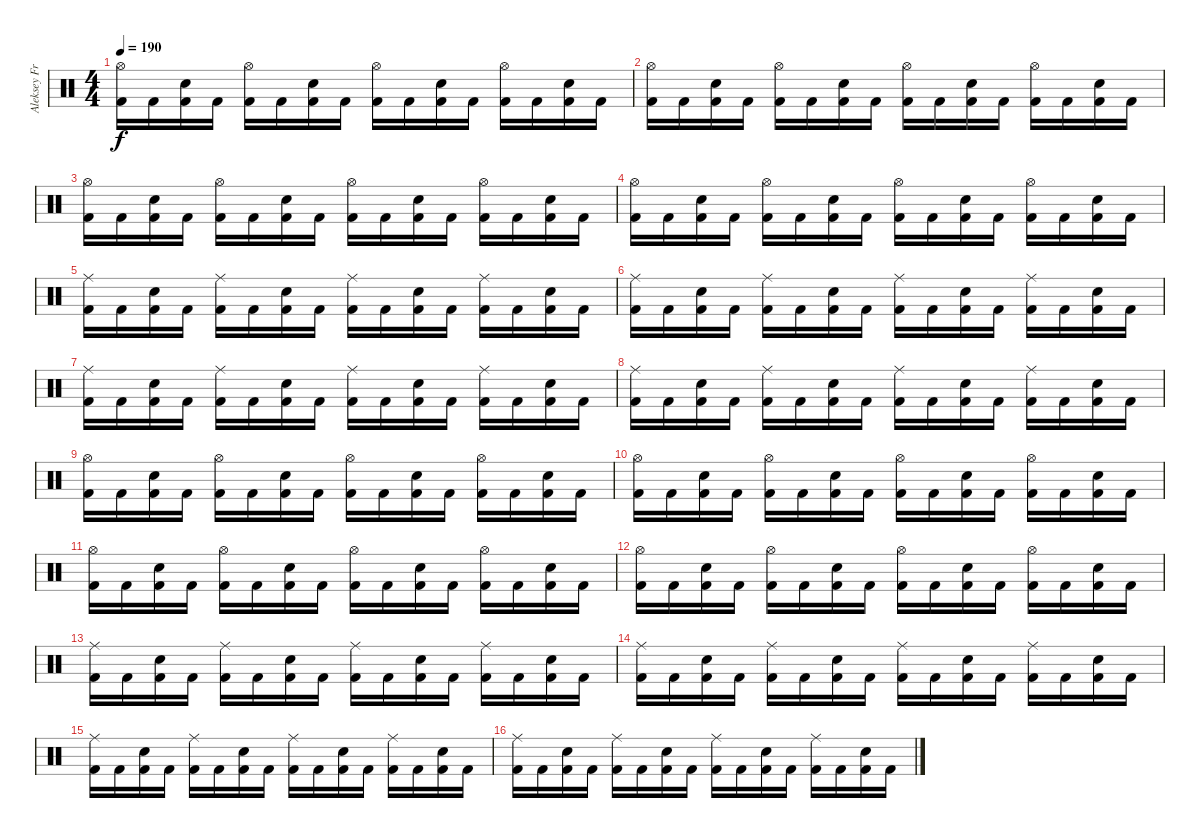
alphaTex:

\track ("Aleksey Frolov" "Aleksey Fr") {instrument percussion}
\staff {score}
\articulation defaults
\ts (4 4)
\tempo 190
\clef neutral
\ks c
("Kick (hit) 2" "Hi-Hat (open)").16{dy f} "Kick (hit) 2".16 ("Kick (hit) 2" "Electric Snare (hit)").16 "Kick (hit) 2".16 ("Kick (hit) 2" "Hi-Hat (open)").16 "Kick (hit) 2".16 ("Kick (hit) 2" "Electric Snare (hit)").16 "Kick (hit) 2".16 ("Kick (hit) 2" "Hi-Hat (open)").16 "Kick (hit) 2".16 ("Kick (hit) 2" "Electric Snare (hit)").16 "Kick (hit) 2".16 ("Kick (hit) 2" "Hi-Hat (open)").16 "Kick (hit) 2".16 ("Kick (hit) 2" "Electric Snare (hit)").16 "Kick (hit) 2".16 |
("Kick (hit) 2" "Hi-Hat (open)").16 "Kick (hit) 2".16 ("Kick (hit) 2" "Electric Snare (hit)").16 "Kick (hit) 2".16 ("Kick (hit) 2" "Hi-Hat (open)").16 "Kick (hit) 2".16 ("Kick (hit) 2" "Electric Snare (hit)").16 "Kick (hit) 2".16 ("Kick (hit) 2" "Hi-Hat (open)").16 "Kick (hit) 2".16 ("Kick (hit) 2" "Electric Snare (hit)").16 "Kick (hit) 2".16 ("Kick (hit) 2" "Hi-Hat (open)").16 "Kick (hit) 2".16 ("Kick (hit) 2" "Electric Snare (hit)").16 "Kick (hit) 2".16 |
("Kick (hit) 2" "Hi-Hat (open)").16 "Kick (hit) 2".16 ("Kick (hit) 2" "Electric Snare (hit)").16 "Kick (hit) 2".16 ("Kick (hit) 2" "Hi-Hat (open)").16 "Kick (hit) 2".16 ("Kick (hit) 2" "Electric Snare (hit)").16 "Kick (hit) 2".16 ("Kick (hit) 2" "Hi-Hat (open)").16 "Kick (hit) 2".16 ("Kick (hit) 2" "Electric Snare (hit)").16 "Kick (hit) 2".16 ("Kick (hit) 2" "Hi-Hat (open)").16 "Kick (hit) 2".16 ("Kick (hit) 2" "Electric Snare (hit)").16 "Kick (hit) 2".16 |
("Kick (hit) 2" "Hi-Hat (open)").16 "Kick (hit) 2".16 ("Kick (hit) 2" "Electric Snare (hit)").16 "Kick (hit) 2".16 ("Kick (hit) 2" "Hi-Hat (open)").16 "Kick (hit) 2".16 ("Kick (hit) 2" "Electric Snare (hit)").16 "Kick (hit) 2".16 ("Kick (hit) 2" "Hi-Hat (open)").16 "Kick (hit) 2".16 ("Kick (hit) 2" "Electric Snare (hit)").16 "Kick (hit) 2".16 ("Kick (hit) 2" "Hi-Hat (open)").16 "Kick (hit) 2".16 ("Kick (hit) 2" "Electric Snare (hit)").16 "Kick (hit) 2".16 |
("Kick (hit) 2" "Ride (middle)").16 "Kick (hit) 2".16 ("Kick (hit) 2" "Electric Snare (hit)").16 "Kick (hit) 2".16 ("Kick (hit) 2" "Ride (middle)").16 "Kick (hit) 2".16 ("Kick (hit) 2" "Electric Snare (hit)").16 "Kick (hit) 2".16 ("Kick (hit) 2" "Ride (middle)").16 "Kick (hit) 2".16 ("Kick (hit) 2" "Electric Snare (hit)").16 "Kick (hit) 2".16 ("Kick (hit) 2" "Ride (middle)").16 "Kick (hit) 2".16 ("Kick (hit) 2" "Electric Snare (hit)").16 "Kick (hit) 2".16 |
("Kick (hit) 2" "Ride (middle)").16 "Kick (hit) 2".16 ("Kick (hit) 2" "Electric Snare (hit)").16 "Kick (hit) 2".16 ("Kick (hit) 2" "Ride (middle)").16 "Kick (hit) 2".16 ("Kick (hit) 2" "Electric Snare (hit)").16 "Kick (hit) 2".16 ("Kick (hit) 2" "Ride (middle)").16 "Kick (hit) 2".16 ("Kick (hit) 2" "Electric Snare (hit)").16 "Kick (hit) 2".16 ("Kick (hit) 2" "Ride (middle)").16 "Kick (hit) 2".16 ("Kick (hit) 2" "Electric Snare (hit)").16 "Kick (hit) 2".16 |
("Kick (hit) 2" "Ride (middle)").16 "Kick (hit) 2".16 ("Kick (hit) 2" "Electric Snare (hit)").16 "Kick (hit) 2".16 ("Kick (hit) 2" "Ride (middle)").16 "Kick (hit) 2".16 ("Kick (hit) 2" "Electric Snare (hit)").16 "Kick (hit) 2".16 ("Kick (hit) 2" "Ride (middle)").16 "Kick (hit) 2".16 ("Kick (hit) 2" "Electric Snare (hit)").16 "Kick (hit) 2".16 ("Kick (hit) 2" "Ride (middle)").16 "Kick (hit) 2".16 ("Kick (hit) 2" "Electric Snare (hit)").16 "Kick (hit) 2".16 |
("Kick (hit) 2" "Ride (middle)").16 "Kick (hit) 2".16 ("Kick (hit) 2" "Electric Snare (hit)").16 "Kick (hit) 2".16 ("Kick (hit) 2" "Ride (middle)").16 "Kick (hit) 2".16 ("Kick (hit) 2" "Electric Snare (hit)").16 "Kick (hit) 2".16 ("Kick (hit) 2" "Ride (middle)").16 "Kick (hit) 2".16 ("Kick (hit) 2" "Electric Snare (hit)").16 "Kick (hit) 2".16 ("Kick (hit) 2" "Ride (middle)").16 "Kick (hit) 2".16 ("Kick (hit) 2" "Electric Snare (hit)").16 "Kick (hit) 2".16 |
("Kick (hit) 2" "Hi-Hat (open)").16 "Kick (hit) 2".16 ("Kick (hit) 2" "Electric Snare (hit)").16 "Kick (hit) 2".16 ("Kick (hit) 2" "Hi-Hat (open)").16 "Kick (hit) 2".16 ("Kick (hit) 2" "Electric Snare (hit)").16 "Kick (hit) 2".16 ("Kick (hit) 2" "Hi-Hat (open)").16 "Kick (hit) 2".16 ("Kick (hit) 2" "Electric Snare (hit)").16 "Kick (hit) 2".16 ("Kick (hit) 2" "Hi-Hat (open)").16 "Kick (hit) 2".16 ("Kick (hit) 2" "Electric Snare (hit)").16 "Kick (hit) 2".16 |
("Kick (hit) 2" "Hi-Hat (open)").16 "Kick (hit) 2".16 ("Kick (hit) 2" "Electric Snare (hit)").16 "Kick (hit) 2".16 ("Kick (hit) 2" "Hi-Hat (open)").16 "Kick (hit) 2".16 ("Kick (hit) 2" "Electric Snare (hit)").16 "Kick (hit) 2".16 ("Kick (hit) 2" "Hi-Hat (open)").16 "Kick (hit) 2".16 ("Kick (hit) 2" "Electric Snare (hit)").16 "Kick (hit) 2".16 ("Kick (hit) 2" "Hi-Hat (open)").16 "Kick (hit) 2".16 ("Kick (hit) 2" "Electric Snare (hit)").16 "Kick (hit) 2".16 |
("Kick (hit) 2" "Hi-Hat (open)").16 "Kick (hit) 2".16 ("Kick (hit) 2" "Electric Snare (hit)").16 "Kick (hit) 2".16 ("Kick (hit) 2" "Hi-Hat (open)").16 "Kick (hit) 2".16 ("Kick (hit) 2" "Electric Snare (hit)").16 "Kick (hit) 2".16 ("Kick (hit) 2" "Hi-Hat (open)").16 "Kick (hit) 2".16 ("Kick (hit) 2" "Electric Snare (hit)").16 "Kick (hit) 2".16 ("Kick (hit) 2" "Hi-Hat (open)").16 "Kick (hit) 2".16 ("Kick (hit) 2" "Electric Snare (hit)").16 "Kick (hit) 2".16 |
("Kick (hit) 2" "Hi-Hat (open)").16 "Kick (hit) 2".16 ("Kick (hit) 2" "Electric Snare (hit)").16 "Kick (hit) 2".16 ("Kick (hit) 2" "Hi-Hat (open)").16 "Kick (hit) 2".16 ("Kick (hit) 2" "Electric Snare (hit)").16 "Kick (hit) 2".16 ("Kick (hit) 2" "Hi-Hat (open)").16 "Kick (hit) 2".16 ("Kick (hit) 2" "Electric Snare (hit)").16 "Kick (hit) 2".16 ("Kick (hit) 2" "Hi-Hat (open)").16 "Kick (hit) 2".16 ("Kick (hit) 2" "Electric Snare (hit)").16 "Kick (hit) 2".16 |
("Kick (hit) 2" "Ride (middle)").16 "Kick (hit) 2".16 ("Kick (hit) 2" "Electric Snare (hit)").16 "Kick (hit) 2".16 ("Kick (hit) 2" "Ride (middle)").16 "Kick (hit) 2".16 ("Kick (hit) 2" "Electric Snare (hit)").16 "Kick (hit) 2".16 ("Kick (hit) 2" "Ride (middle)").16 "Kick (hit) 2".16 ("Kick (hit) 2" "Electric Snare (hit)").16 "Kick (hit) 2".16 ("Kick (hit) 2" "Ride (middle)").16 "Kick (hit) 2".16 ("Kick (hit) 2" "Electric Snare (hit)").16 "Kick (hit) 2".16 |
("Kick (hit) 2" "Ride (middle)").16 "Kick (hit) 2".16 ("Kick (hit) 2" "Electric Snare (hit)").16 "Kick (hit) 2".16 ("Kick (hit) 2" "Ride (middle)").16 "Kick (hit) 2".16 ("Kick (hit) 2" "Electric Snare (hit)").16 "Kick (hit) 2".16 ("Kick (hit) 2" "Ride (middle)").16 "Kick (hit) 2".16 ("Kick (hit) 2" "Electric Snare (hit)").16 "Kick (hit) 2".16 ("Kick (hit) 2" "Ride (middle)").16 "Kick (hit) 2".16 ("Kick (hit) 2" "Electric Snare (hit)").16 "Kick (hit) 2".16 |
("Kick (hit) 2" "Ride (middle)").16 "Kick (hit) 2".16 ("Kick (hit) 2" "Electric Snare (hit)").16 "Kick (hit) 2".16 ("Kick (hit) 2" "Ride (middle)").16 "Kick (hit) 2".16 ("Kick (hit) 2" "Electric Snare (hit)").16 "Kick (hit) 2".16 ("Kick (hit) 2" "Ride (middle)").16 "Kick (hit) 2".16 ("Kick (hit) 2" "Electric Snare (hit)").16 "Kick (hit) 2".16 ("Kick (hit) 2" "Ride (middle)").16 "Kick (hit) 2".16 ("Kick (hit) 2" "Electric Snare (hit)").16 "Kick (hit) 2".16 |
("Kick (hit) 2" "Ride (middle)").16 "Kick (hit) 2".16 ("Kick (hit) 2" "Electric Snare (hit)").16 "Kick (hit) 2".16 ("Kick (hit) 2" "Ride (middle)").16 "Kick (hit) 2".16 ("Kick (hit) 2" "Electric Snare (hit)").16 "Kick (hit) 2".16 ("Kick (hit) 2" "Ride (middle)").16 "Kick (hit) 2".16 ("Kick (hit) 2" "Electric Snare (hit)").16 "Kick (hit) 2".16 ("Kick (hit) 2" "Ride (middle)").16 "Kick (hit) 2".16 ("Kick (hit) 2" "Electric Snare (hit)").16 "Kick (hit) 2".16
